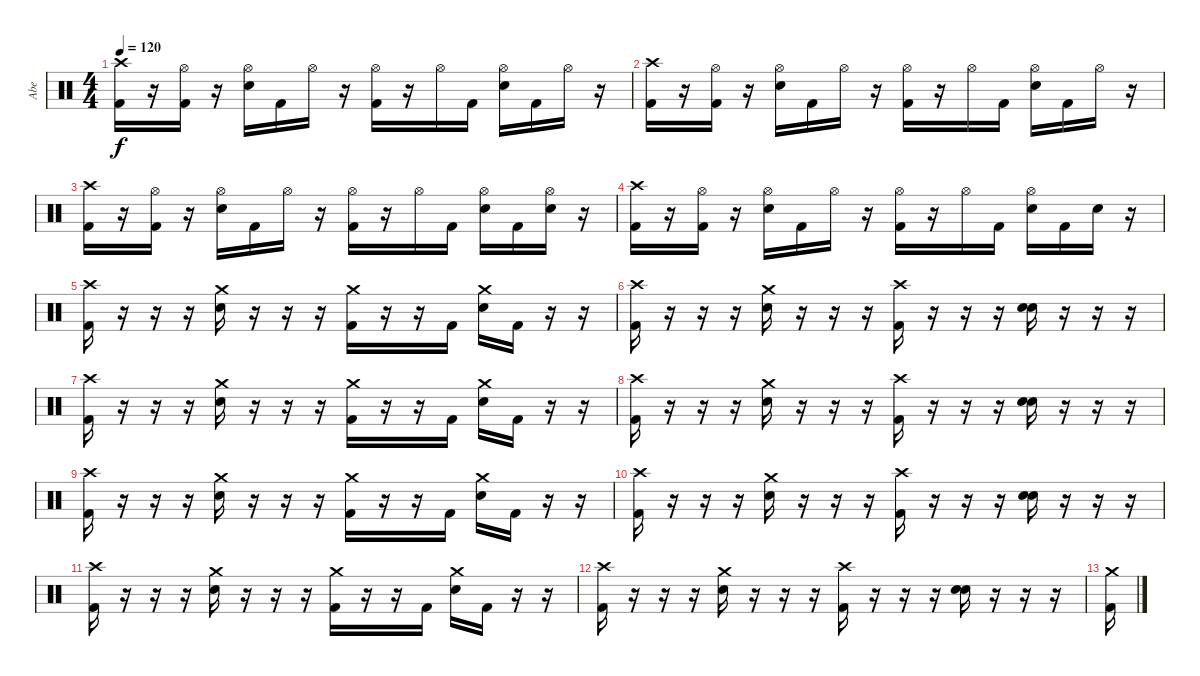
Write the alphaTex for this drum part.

\track ("Abe" "Abe") {instrument percussion}
\staff {score}
\articulation defaults
\ts (4 4)
\tempo 120
\clef neutral
\ks c
("Crash high (hit)" "Kick (hit) 2").16{dy f} r.16 ("Hi-Hat (open)" "Kick (hit) 2").16 r.16 ("Hi-Hat (open)" "Electric Snare (hit)").16 "Kick (hit) 2".16 "Hi-Hat (open)".16 r.16 ("Hi-Hat (open)" "Kick (hit) 2").16 r.16 "Hi-Hat (open)".16 "Kick (hit) 2".16 ("Hi-Hat (open)" "Electric Snare (hit)").16 "Kick (hit) 2".16 "Hi-Hat (open)".16 r.16 |
("Crash high (hit)" "Kick (hit) 2").16 r.16 ("Hi-Hat (open)" "Kick (hit) 2").16 r.16 ("Hi-Hat (open)" "Electric Snare (hit)").16 "Kick (hit) 2".16 "Hi-Hat (open)".16 r.16 ("Hi-Hat (open)" "Kick (hit) 2").16 r.16 "Hi-Hat (open)".16 "Kick (hit) 2".16 ("Hi-Hat (open)" "Electric Snare (hit)").16 "Kick (hit) 2".16 "Hi-Hat (open)".16 r.16 |
("Crash high (hit)" "Kick (hit) 2").16 r.16 ("Hi-Hat (open)" "Kick (hit) 2").16 r.16 ("Hi-Hat (open)" "Electric Snare (hit)").16 "Kick (hit) 2".16 "Hi-Hat (open)".16 r.16 ("Hi-Hat (open)" "Kick (hit) 2").16 r.16 "Hi-Hat (open)".16 "Kick (hit) 2".16 ("Hi-Hat (open)" "Electric Snare (hit)").16 "Kick (hit) 2".16 ("Hi-Hat (open)" "Electric Snare (hit)").16 r.16 |
("Crash high (hit)" "Kick (hit) 2").16 r.16 ("Hi-Hat (open)" "Kick (hit) 2").16 r.16 ("Hi-Hat (open)" "Electric Snare (hit)").16 "Kick (hit) 2".16 "Hi-Hat (open)".16 r.16 ("Hi-Hat (open)" "Kick (hit) 2").16 r.16 "Hi-Hat (open)".16 "Kick (hit) 2".16 ("Hi-Hat (open)" "Electric Snare (hit)").16 "Kick (hit) 2".16 "Electric Snare (hit)".16 r.16 |
("Crash high (hit)" "Kick (hit) 2").16 r.16 r.16 r.16 ("Crash medium (hit)" "Electric Snare (hit)").16 r.16 r.16 r.16 ("Crash medium (hit)" "Kick (hit) 2").16 r.16 r.16 "Kick (hit) 2".16 ("Crash medium (hit)" "Electric Snare (hit)").16 "Kick (hit) 2".16 r.16 r.16 |
("Crash high (hit)" "Kick (hit) 2").16 r.16 r.16 r.16 ("Crash medium (hit)" "Electric Snare (hit)").16 r.16 r.16 r.16 ("Crash high (hit)" "Kick (hit) 2").16 r.16 r.16 r.16 ("Electric Snare (hit)" "Electric Snare (hit)").16 r.16 r.16 r.16 |
("Crash high (hit)" "Kick (hit) 2").16 r.16 r.16 r.16 ("Crash medium (hit)" "Electric Snare (hit)").16 r.16 r.16 r.16 ("Crash medium (hit)" "Kick (hit) 2").16 r.16 r.16 "Kick (hit) 2".16 ("Crash medium (hit)" "Electric Snare (hit)").16 "Kick (hit) 2".16 r.16 r.16 |
("Crash high (hit)" "Kick (hit) 2").16 r.16 r.16 r.16 ("Crash medium (hit)" "Electric Snare (hit)").16 r.16 r.16 r.16 ("Crash high (hit)" "Kick (hit) 2").16 r.16 r.16 r.16 ("Electric Snare (hit)" "Electric Snare (hit)").16 r.16 r.16 r.16 |
("Crash high (hit)" "Kick (hit) 2").16 r.16 r.16 r.16 ("Crash medium (hit)" "Electric Snare (hit)").16 r.16 r.16 r.16 ("Crash medium (hit)" "Kick (hit) 2").16 r.16 r.16 "Kick (hit) 2".16 ("Crash medium (hit)" "Electric Snare (hit)").16 "Kick (hit) 2".16 r.16 r.16 |
("Crash high (hit)" "Kick (hit) 2").16 r.16 r.16 r.16 ("Crash medium (hit)" "Electric Snare (hit)").16 r.16 r.16 r.16 ("Crash high (hit)" "Kick (hit) 2").16 r.16 r.16 r.16 ("Electric Snare (hit)" "Electric Snare (hit)").16 r.16 r.16 r.16 |
("Crash high (hit)" "Kick (hit) 2").16 r.16 r.16 r.16 ("Crash medium (hit)" "Electric Snare (hit)").16 r.16 r.16 r.16 ("Crash medium (hit)" "Kick (hit) 2").16 r.16 r.16 "Kick (hit) 2".16 ("Crash medium (hit)" "Electric Snare (hit)").16 "Kick (hit) 2".16 r.16 r.16 |
("Crash high (hit)" "Kick (hit) 2").16 r.16 r.16 r.16 ("Crash medium (hit)" "Electric Snare (hit)").16 r.16 r.16 r.16 ("Crash high (hit)" "Kick (hit) 2").16 r.16 r.16 r.16 ("Electric Snare (hit)" "Electric Snare (hit)").16 r.16 r.16 r.16 |
("Crash medium (hit)" "Kick (hit) 2").16
